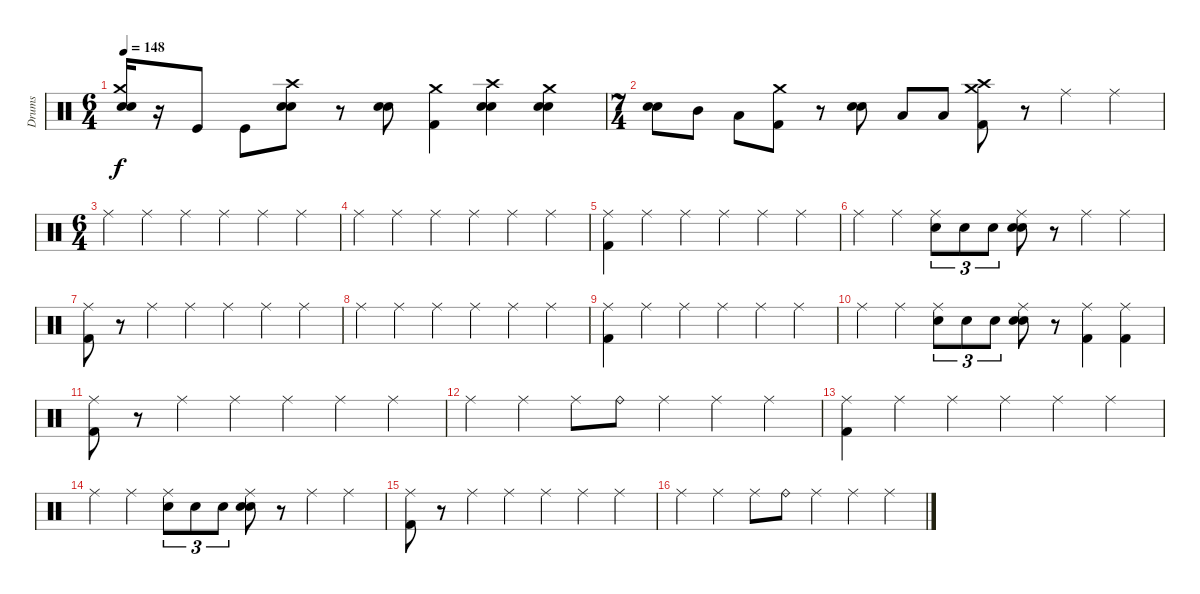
\track ("Drums" "Drums") {instrument percussion}
\staff {score}
\articulation defaults
\ts (6 4)
\tempo 148
\clef neutral
\ks c
("Snare (hit) 2" "Crash medium (hit)" "Electric Snare (hit)").16{dy f} r.16 "Kick (hit)".8 "Kick (hit)".8 ("Crash high (hit)" "Electric Snare (hit)" "Snare (hit) 2").8 r.8 ("Electric Snare (hit)" "Snare (hit) 2").8 ("Crash medium (hit)" "Kick (hit) 2").4 ("Electric Snare (hit)" "Crash high (hit)" "Snare (hit) 2").4 ("Electric Snare (hit)" "Crash medium (hit)" "Snare (hit) 2").4 |
\ts (7 4)
("Snare (hit) 2" "Electric Snare (hit)").8 "Mid Tom (hit)".8 "Low Tom (hit)".8 ("Crash medium (hit)" "Kick (hit) 2").8 r.8 ("Snare (hit) 2" "Electric Snare (hit)").8 "Low Tom (hit)".8 "Low Floor Tom (hit)".8 ("Crash high (hit)" "Crash medium (hit)" "Kick (hit) 2").8 r.8 "Ride (middle)".4 "Ride (middle)".4 |
\ts (6 4)
"Ride (middle)".4 "Ride (middle)".4 "Ride (middle)".4 "Ride (middle)".4 "Ride (middle)".4 "Ride (middle)".4 |
"Ride (middle)".4 "Ride (middle)".4 "Ride (middle)".4 "Ride (middle)".4 "Ride (middle)".4 "Ride (middle)".4 |
("Kick (hit) 2" "Ride (middle)").4 "Ride (middle)".4 "Ride (middle)".4 "Ride (middle)".4 "Ride (middle)".4 "Ride (middle)".4 |
"Ride (middle)".4 "Ride (middle)".4 ("Snare (hit) 2" "Ride (middle)").8{tu (3 2)} "Snare (hit) 2".8{tu (3 2)} "Snare (hit) 2".8{tu (3 2)} ("Electric Snare (hit)" "Snare (hit) 2" "Ride (middle)").8 r.8 "Ride (middle)".4 "Ride (middle)".4 |
("Kick (hit) 2" "Ride (middle)").8 r.8 "Ride (middle)".4 "Ride (middle)".4 "Ride (middle)".4 "Ride (middle)".4 "Ride (middle)".4 |
"Ride (middle)".4 "Ride (middle)".4 "Ride (middle)".4 "Ride (middle)".4 "Ride (middle)".4 "Ride (middle)".4 |
("Kick (hit) 2" "Ride (middle)").4 "Ride (middle)".4 "Ride (middle)".4 "Ride (middle)".4 "Ride (middle)".4 "Ride (middle)".4 |
"Ride (middle)".4 "Ride (middle)".4 ("Snare (hit) 2" "Ride (middle)").8{tu (3 2)} "Snare (hit) 2".8{tu (3 2)} "Snare (hit) 2".8{tu (3 2)} ("Electric Snare (hit)" "Snare (hit) 2" "Ride (middle)").8 r.8 ("Kick (hit) 2" "Ride (middle)").4 ("Kick (hit) 2" "Ride (middle)").4 |
("Kick (hit) 2" "Ride (middle)").8 r.8 "Ride (middle)".4 "Ride (middle)".4 "Ride (middle)".4 "Ride (middle)".4 "Ride (middle)".4 |
"Ride (middle)".4 "Ride (middle)".4 "Ride (middle)".8 "Ride (bell)".8 "Ride (middle)".4 "Ride (middle)".4 "Ride (middle)".4 |
("Ride (middle)" "Kick (hit) 2").4 "Ride (middle)".4 "Ride (middle)".4 "Ride (middle)".4 "Ride (middle)".4 "Ride (middle)".4 |
"Ride (middle)".4 "Ride (middle)".4 ("Snare (hit) 2" "Ride (middle)").8{tu (3 2)} "Snare (hit) 2".8{tu (3 2)} "Snare (hit) 2".8{tu (3 2)} ("Electric Snare (hit)" "Snare (hit) 2" "Ride (middle)").8 r.8 "Ride (middle)".4 "Ride (middle)".4 |
("Kick (hit) 2" "Ride (middle)").8 r.8 "Ride (middle)".4 "Ride (middle)".4 "Ride (middle)".4 "Ride (middle)".4 "Ride (middle)".4 |
"Ride (middle)".4 "Ride (middle)".4 "Ride (middle)".8 "Ride (bell)".8 "Ride (middle)".4 "Ride (middle)".4 "Ride (middle)".4
